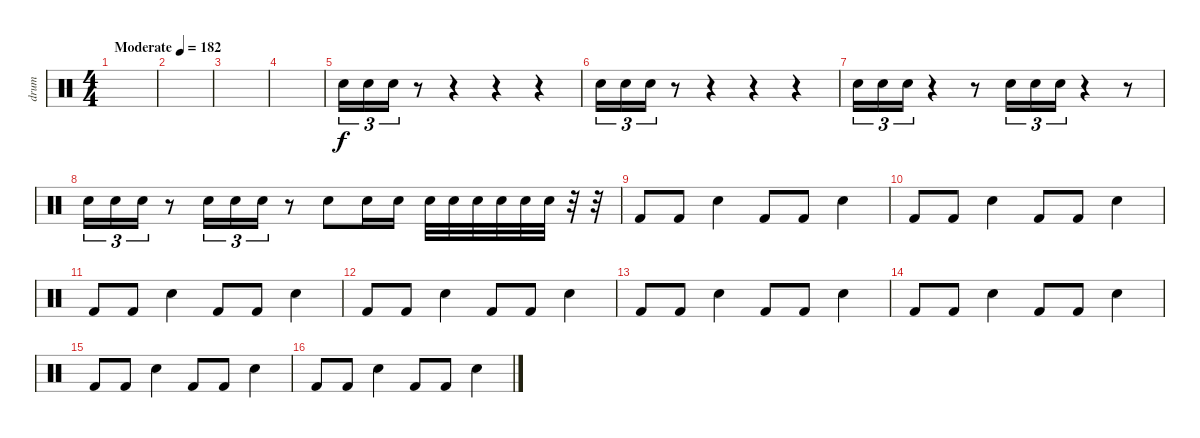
\track ("drum" "drum") {instrument percussion}
\staff {score}
\articulation defaults
\ts (4 4)
\tempo (182 "Moderate")
\clef neutral
\ks c
|
|
|
|
"Snare (hit) 2".16{tu (3 2)} "Electric Snare (hit)".16{tu (3 2)} "Electric Snare (hit)".16{tu (3 2)} r.8 r.4 r.4 r.4 |
"Snare (hit) 2".16{tu (3 2)} "Electric Snare (hit)".16{tu (3 2)} "Electric Snare (hit)".16{tu (3 2)} r.8 r.4 r.4 r.4 |
"Snare (hit) 2".16{tu (3 2)} "Electric Snare (hit)".16{tu (3 2)} "Electric Snare (hit)".16{tu (3 2)} r.4 r.8 "Snare (hit) 2".16{tu (3 2)} "Electric Snare (hit)".16{tu (3 2)} "Electric Snare (hit)".16{tu (3 2)} r.4 r.8 |
"Snare (hit) 2".16{tu (3 2)} "Electric Snare (hit)".16{tu (3 2)} "Electric Snare (hit)".16{tu (3 2)} r.8 "Snare (hit) 2".16{tu (3 2)} "Electric Snare (hit)".16{tu (3 2)} "Electric Snare (hit)".16{tu (3 2)} r.8 "Electric Snare (hit)".8 "Electric Snare (hit)".16 "Electric Snare (hit)".16 "Electric Snare (hit)".32 "Electric Snare (hit)".32 "Electric Snare (hit)".32 "Electric Snare (hit)".32 "Electric Snare (hit)".32 "Electric Snare (hit)".32 r.32 r.32 |
"Kick (hit) 2".8 "Kick (hit) 2".8 "Electric Snare (hit)".4 "Kick (hit) 2".8 "Kick (hit) 2".8 "Electric Snare (hit)".4 |
"Kick (hit) 2".8 "Kick (hit) 2".8 "Electric Snare (hit)".4 "Kick (hit) 2".8 "Kick (hit) 2".8 "Electric Snare (hit)".4 |
"Kick (hit) 2".8 "Kick (hit) 2".8 "Electric Snare (hit)".4 "Kick (hit) 2".8 "Kick (hit) 2".8 "Electric Snare (hit)".4 |
"Kick (hit) 2".8 "Kick (hit) 2".8 "Electric Snare (hit)".4 "Kick (hit) 2".8 "Kick (hit) 2".8 "Electric Snare (hit)".4 |
"Kick (hit) 2".8 "Kick (hit) 2".8 "Electric Snare (hit)".4 "Kick (hit) 2".8 "Kick (hit) 2".8 "Electric Snare (hit)".4 |
"Kick (hit) 2".8 "Kick (hit) 2".8 "Electric Snare (hit)".4 "Kick (hit) 2".8 "Kick (hit) 2".8 "Electric Snare (hit)".4 |
"Kick (hit) 2".8 "Kick (hit) 2".8 "Electric Snare (hit)".4 "Kick (hit) 2".8 "Kick (hit) 2".8 "Electric Snare (hit)".4 |
"Kick (hit) 2".8 "Kick (hit) 2".8 "Electric Snare (hit)".4 "Kick (hit) 2".8 "Kick (hit) 2".8 "Electric Snare (hit)".4
